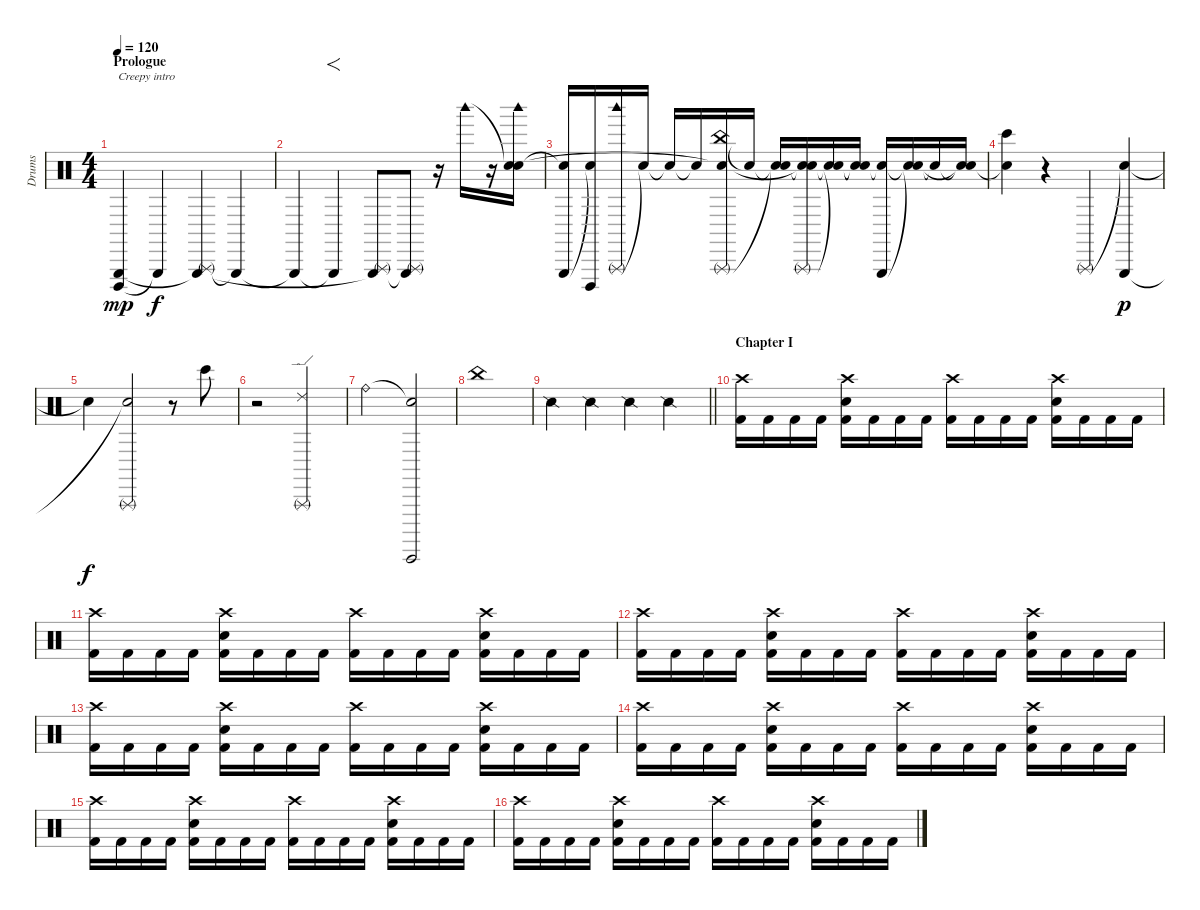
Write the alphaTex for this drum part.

\track ("Drums" "Drums") {instrument percussion}
\staff {score}
\articulation defaults
\ts (4 4)
\section ("" "Prologue")
\tempo 120
\clef neutral
\ks c
("Cuica (open)" "Triangle (hit)").4{txt "Creepy intro" dy mp} "Triangle (hit)"{t}.4{dy f} ("Triangle (rnute)" "Triangle (hit)"{t}).4 "Triangle (hit)"{t}.4 |
"Triangle (hit)"{t}.4 "Triangle (hit)"{t}.4{f} ("Triangle (rnute)" "Triangle (hit)"{t}).8 ("Triangle (rnute)" "Triangle (hit)"{t}).8 r.16 "Woodblock high (hit)".16 r.16 ("Snare (hit)"{t} "Woodblock high (hit)" "Snare (hit)").16 |
("Snare (hit)"{t} "Triangle (hit)").16 ("Cuica (open)" "Snare (hit)"{t}).16 ("Triangle (rnute)" "Woodblock high (hit)").16 "Snare (hit)"{t}.16 "Snare (hit)"{t}.16 "Snare (hit)"{t}.16 ("China (hit)" "Triangle (rnute)" "Snare (hit)"{t}).16 "Snare (hit)"{t}.16 ("Snare (hit)"{t} "Snare (hit)"{t}).16 ("Snare (hit)"{t} "Triangle (rnute)" "Snare (hit)"{t}).16 ("Snare (hit)"{t} "Snare (hit)"{t}).16 ("Snare (hit)"{t} "Snare (hit)"{t}).16 ("Snare (hit)"{t} "Triangle (hit)").16 ("Snare (hit)"{t} "Snare (hit)"{t}).16 "Snare (hit)"{t}.16 ("Snare (hit)"{t} "Snare (hit)"{t}).16 |
("Bongo High (hit)" "Snare (hit)"{t}).4 r.4 "Triangle (rnute)".4 ("Snare (hit)"{t} "Triangle (hit)").4{dy p} |
"Snare (hit)"{t}.4{dy f} ("Triangle (rnute)" "Snare (hit)"{t}).2 r.8 "Bongo High (hit)".8 |
r.2 ("Triangle (rnute)" "Ride (edge) 2").2 |
"Ride (bell)".2 ("Snare (hit)"{t} "Guiro (hit)").2 |
"China (hit)".1 |
\barLineRight lightlight "Snare (side stick) 2".4 "Snare (side stick) 2".4 "Snare (side stick) 2".4 "Snare (side stick) 2".4
|
\section ("" "Chapter I")
("Crash high (hit)" "Kick (hit) 2").16 "Kick (hit) 2".16 "Kick (hit) 2".16 "Kick (hit) 2".16 ("Crash high (hit)" "Electric Snare (hit)" "Kick (hit) 2").16 "Kick (hit) 2".16 "Kick (hit) 2".16 "Kick (hit) 2".16 ("Crash high (hit)" "Kick (hit) 2").16 "Kick (hit) 2".16 "Kick (hit) 2".16 "Kick (hit) 2".16 ("Crash high (hit)" "Electric Snare (hit)" "Kick (hit) 2").16 "Kick (hit) 2".16 "Kick (hit) 2".16 "Kick (hit) 2".16 |
("Crash high (hit)" "Kick (hit) 2").16 "Kick (hit) 2".16 "Kick (hit) 2".16 "Kick (hit) 2".16 ("Crash high (hit)" "Electric Snare (hit)" "Kick (hit) 2").16 "Kick (hit) 2".16 "Kick (hit) 2".16 "Kick (hit) 2".16 ("Crash high (hit)" "Kick (hit) 2").16 "Kick (hit) 2".16 "Kick (hit) 2".16 "Kick (hit) 2".16 ("Crash high (hit)" "Electric Snare (hit)" "Kick (hit) 2").16 "Kick (hit) 2".16 "Kick (hit) 2".16 "Kick (hit) 2".16 |
("Crash high (hit)" "Kick (hit) 2").16 "Kick (hit) 2".16 "Kick (hit) 2".16 "Kick (hit) 2".16 ("Crash high (hit)" "Electric Snare (hit)" "Kick (hit) 2").16 "Kick (hit) 2".16 "Kick (hit) 2".16 "Kick (hit) 2".16 ("Crash high (hit)" "Kick (hit) 2").16 "Kick (hit) 2".16 "Kick (hit) 2".16 "Kick (hit) 2".16 ("Crash high (hit)" "Electric Snare (hit)" "Kick (hit) 2").16 "Kick (hit) 2".16 "Kick (hit) 2".16 "Kick (hit) 2".16 |
("Crash high (hit)" "Kick (hit) 2").16 "Kick (hit) 2".16 "Kick (hit) 2".16 "Kick (hit) 2".16 ("Crash high (hit)" "Electric Snare (hit)" "Kick (hit) 2").16 "Kick (hit) 2".16 "Kick (hit) 2".16 "Kick (hit) 2".16 ("Crash high (hit)" "Kick (hit) 2").16 "Kick (hit) 2".16 "Kick (hit) 2".16 "Kick (hit) 2".16 ("Crash high (hit)" "Electric Snare (hit)" "Kick (hit) 2").16 "Kick (hit) 2".16 "Kick (hit) 2".16 "Kick (hit) 2".16 |
("Crash high (hit)" "Kick (hit) 2").16 "Kick (hit) 2".16 "Kick (hit) 2".16 "Kick (hit) 2".16 ("Crash high (hit)" "Electric Snare (hit)" "Kick (hit) 2").16 "Kick (hit) 2".16 "Kick (hit) 2".16 "Kick (hit) 2".16 ("Crash high (hit)" "Kick (hit) 2").16 "Kick (hit) 2".16 "Kick (hit) 2".16 "Kick (hit) 2".16 ("Crash high (hit)" "Electric Snare (hit)" "Kick (hit) 2").16 "Kick (hit) 2".16 "Kick (hit) 2".16 "Kick (hit) 2".16 |
("Crash high (hit)" "Kick (hit) 2").16 "Kick (hit) 2".16 "Kick (hit) 2".16 "Kick (hit) 2".16 ("Crash high (hit)" "Electric Snare (hit)" "Kick (hit) 2").16 "Kick (hit) 2".16 "Kick (hit) 2".16 "Kick (hit) 2".16 ("Crash high (hit)" "Kick (hit) 2").16 "Kick (hit) 2".16 "Kick (hit) 2".16 "Kick (hit) 2".16 ("Crash high (hit)" "Electric Snare (hit)" "Kick (hit) 2").16 "Kick (hit) 2".16 "Kick (hit) 2".16 "Kick (hit) 2".16 |
("Crash high (hit)" "Kick (hit) 2").16 "Kick (hit) 2".16 "Kick (hit) 2".16 "Kick (hit) 2".16 ("Crash high (hit)" "Electric Snare (hit)" "Kick (hit) 2").16 "Kick (hit) 2".16 "Kick (hit) 2".16 "Kick (hit) 2".16 ("Crash high (hit)" "Kick (hit) 2").16 "Kick (hit) 2".16 "Kick (hit) 2".16 "Kick (hit) 2".16 ("Crash high (hit)" "Electric Snare (hit)" "Kick (hit) 2").16 "Kick (hit) 2".16 "Kick (hit) 2".16 "Kick (hit) 2".16
